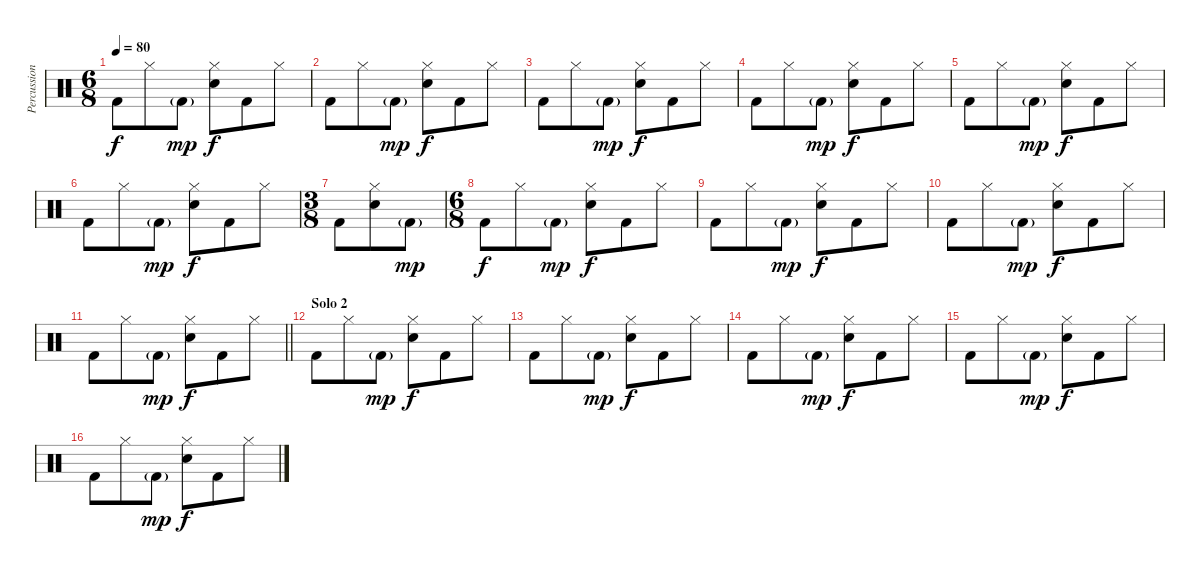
\track ("Percussion" "Percussion") {instrument percussion}
\staff {score}
\articulation defaults
\ts (6 8)
\tempo 80
\clef neutral
\ks c "Kick (hit) 2".8{dy f} "Hi-Hat (closed)".8 "Kick (hit) 2"{g}.8{dy mp}
("Hi-Hat (closed)" "Snare (hit) 2").8{dy f} "Kick (hit) 2".8 "Hi-Hat (closed)".8 |
"Kick (hit) 2".8 "Hi-Hat (closed)".8 "Kick (hit) 2"{g}.8{dy mp} ("Hi-Hat (closed)" "Snare (hit) 2").8{dy f} "Kick (hit) 2".8 "Hi-Hat (closed)".8 |
"Kick (hit) 2".8 "Hi-Hat (closed)".8 "Kick (hit) 2"{g}.8{dy mp} ("Hi-Hat (closed)" "Snare (hit) 2").8{dy f} "Kick (hit) 2".8 "Hi-Hat (closed)".8 |
"Kick (hit) 2".8 "Hi-Hat (closed)".8 "Kick (hit) 2"{g}.8{dy mp} ("Hi-Hat (closed)" "Snare (hit) 2").8{dy f} "Kick (hit) 2".8 "Hi-Hat (closed)".8 |
"Kick (hit) 2".8 "Hi-Hat (closed)".8 "Kick (hit) 2"{g}.8{dy mp} ("Hi-Hat (closed)" "Snare (hit) 2").8{dy f} "Kick (hit) 2".8 "Hi-Hat (closed)".8 |
"Kick (hit) 2".8 "Hi-Hat (closed)".8 "Kick (hit) 2"{g}.8{dy mp} ("Hi-Hat (closed)" "Snare (hit) 2").8{dy f} "Kick (hit) 2".8 "Hi-Hat (closed)".8 |
\ts (3 8)
"Kick (hit) 2".8 ("Hi-Hat (closed)" "Snare (hit) 2").8 "Kick (hit) 2"{g}.8{dy mp} |
\ts (6 8)
"Kick (hit) 2".8{dy f} "Hi-Hat (closed)".8 "Kick (hit) 2"{g}.8{dy mp} ("Hi-Hat (closed)" "Snare (hit) 2").8{dy f} "Kick (hit) 2".8 "Hi-Hat (closed)".8 |
"Kick (hit) 2".8 "Hi-Hat (closed)".8 "Kick (hit) 2"{g}.8{dy mp} ("Hi-Hat (closed)" "Snare (hit) 2").8{dy f} "Kick (hit) 2".8 "Hi-Hat (closed)".8 |
"Kick (hit) 2".8 "Hi-Hat (closed)".8 "Kick (hit) 2"{g}.8{dy mp} ("Hi-Hat (closed)" "Snare (hit) 2").8{dy f} "Kick (hit) 2".8 "Hi-Hat (closed)".8 |
\barLineRight lightlight "Kick (hit) 2".8 "Hi-Hat (closed)".8 "Kick (hit) 2"{g}.8{dy mp}
("Hi-Hat (closed)" "Snare (hit) 2").8{dy f} "Kick (hit) 2".8 "Hi-Hat (closed)".8 |
\section ("" "Solo 2")
"Kick (hit) 2".8 "Hi-Hat (closed)".8 "Kick (hit) 2"{g}.8{dy mp} ("Hi-Hat (closed)" "Snare (hit) 2").8{dy f} "Kick (hit) 2".8 "Hi-Hat (closed)".8 |
"Kick (hit) 2".8 "Hi-Hat (closed)".8 "Kick (hit) 2"{g}.8{dy mp} ("Hi-Hat (closed)" "Snare (hit) 2").8{dy f} "Kick (hit) 2".8 "Hi-Hat (closed)".8 |
"Kick (hit) 2".8 "Hi-Hat (closed)".8 "Kick (hit) 2"{g}.8{dy mp} ("Hi-Hat (closed)" "Snare (hit) 2").8{dy f} "Kick (hit) 2".8 "Hi-Hat (closed)".8 |
"Kick (hit) 2".8 "Hi-Hat (closed)".8 "Kick (hit) 2"{g}.8{dy mp} ("Hi-Hat (closed)" "Snare (hit) 2").8{dy f} "Kick (hit) 2".8 "Hi-Hat (closed)".8 |
"Kick (hit) 2".8 "Hi-Hat (closed)".8 "Kick (hit) 2"{g}.8{dy mp} ("Hi-Hat (closed)" "Snare (hit) 2").8{dy f} "Kick (hit) 2".8 "Hi-Hat (closed)".8
